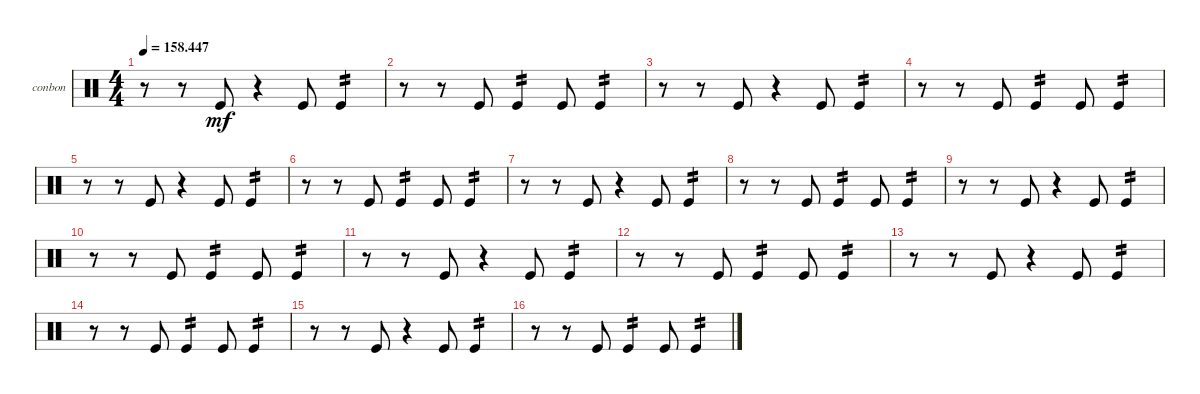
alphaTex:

\defaultSystemsLayout 4
\bracketExtendMode groupsimilarinstruments
\firstSystemTrackNameOrientation horizontal
\otherSystemsTrackNameOrientation horizontal
\track ("Bongos N Congas" "conbon") {instrument percussion}
\staff {score}
\articulation defaults
\ts (4 4)
\tempo
158.447
\accidentals auto
\clef neutral
\ottava regular
\simile none
\ks c
r.8{dy mf} r.8 "Kick (hit)".8 r.4 "Kick (hit)".8 "Kick (hit)".4{tp 2} |
r.8 r.8 "Kick (hit)".8 "Kick (hit)".4{tp 2} "Kick (hit)".8 "Kick (hit)".4{tp 2} |
r.8 r.8 "Kick (hit)".8 r.4 "Kick (hit)".8 "Kick (hit)".4{tp 2} |
r.8 r.8 "Kick (hit)".8 "Kick (hit)".4{tp 2} "Kick (hit)".8 "Kick (hit)".4{tp 2} |
r.8 r.8 "Kick (hit)".8 r.4 "Kick (hit)".8 "Kick (hit)".4{tp 2} |
r.8 r.8 "Kick (hit)".8 "Kick (hit)".4{tp 2} "Kick (hit)".8 "Kick (hit)".4{tp 2} |
r.8 r.8 "Kick (hit)".8 r.4 "Kick (hit)".8 "Kick (hit)".4{tp 2} |
r.8 r.8 "Kick (hit)".8 "Kick (hit)".4{tp 2} "Kick (hit)".8 "Kick (hit)".4{tp 2} |
r.8 r.8 "Kick (hit)".8 r.4 "Kick (hit)".8 "Kick (hit)".4{tp 2} |
r.8 r.8 "Kick (hit)".8 "Kick (hit)".4{tp 2} "Kick (hit)".8 "Kick (hit)".4{tp 2} |
r.8 r.8 "Kick (hit)".8 r.4 "Kick (hit)".8 "Kick (hit)".4{tp 2} |
r.8 r.8 "Kick (hit)".8 "Kick (hit)".4{tp 2} "Kick (hit)".8 "Kick (hit)".4{tp 2} |
r.8 r.8 "Kick (hit)".8 r.4 "Kick (hit)".8 "Kick (hit)".4{tp 2} |
r.8 r.8 "Kick (hit)".8 "Kick (hit)".4{tp 2} "Kick (hit)".8 "Kick (hit)".4{tp 2} |
r.8 r.8 "Kick (hit)".8 r.4 "Kick (hit)".8 "Kick (hit)".4{tp 2} |
r.8 r.8 "Kick (hit)".8 "Kick (hit)".4{tp 2} "Kick (hit)".8 "Kick (hit)".4{tp 2}
